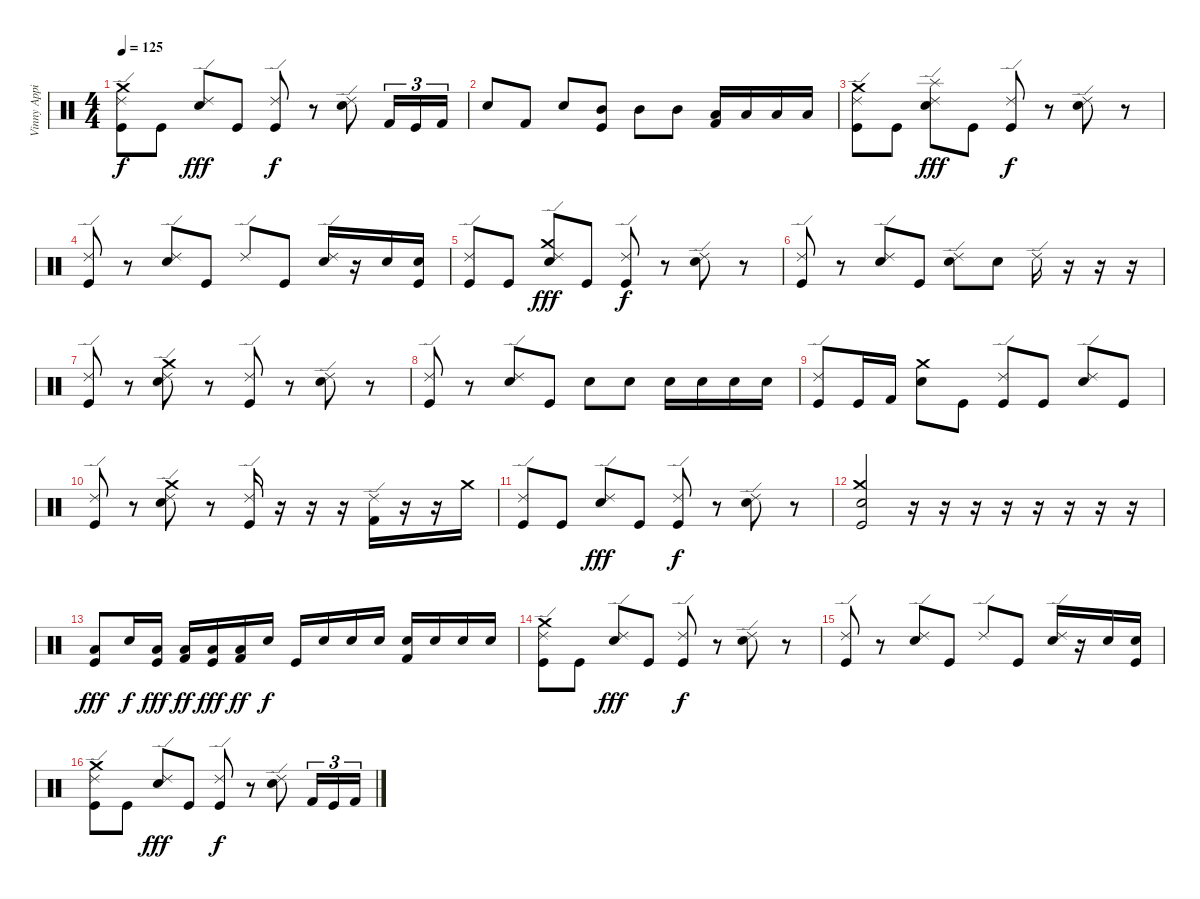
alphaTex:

\track ("Vinny Appice - Drums" "Vinny Appi") {instrument percussion}
\staff {score}
\articulation defaults
\ts (4 4)
\tempo 125
\clef neutral
\ks c
("Kick (hit)" "Ride (edge) 2" "Crash medium (hit)").8{dy f} "Kick (hit)".8 ("Ride (edge) 2" "Snare (hit) 2").8{dy fff} "Kick (hit)".8 ("Ride (edge) 2" "Kick (hit)").8{dy f} r.8 ("Ride (edge) 2" "Snare (hit) 2").8 "Kick (hit) 2".16{tu (3 2)} "Kick (hit)".16{tu (3 2)} "Kick (hit) 2".16{tu (3 2)} |
"Snare (hit) 2".8 "Kick (hit) 2".8 "Electric Snare (hit)".8 ("Kick (hit)" "Mid Tom (hit)").8 "Mid Tom (hit)".8 "Mid Tom (hit)".8 ("Kick (hit) 2" "Low Tom (hit)").16 "Low Tom (hit)".16 "Low Tom (hit)".16 "Low Tom (hit)".16 |
("Kick (hit)" "Ride (edge) 2" "Crash medium (hit)").8 "Kick (hit)".8 ("Ride (edge) 2" "Snare (hit) 2" "Splash (hit)").8{dy fff} "Kick (hit)".8 ("Ride (edge) 2" "Kick (hit)").8{dy f} r.8 ("Ride (edge) 2" "Snare (hit) 2").8 r.8 |
("Ride (edge) 2" "Kick (hit)").8 r.8 ("Ride (edge) 2" "Snare (hit) 2").8 "Kick (hit)".8 "Ride (edge) 2".8 "Kick (hit)".8 ("Ride (edge) 2" "Snare (hit) 2").16 r.16 "Snare (hit) 2".16 ("Kick (hit)" "Snare (hit) 2").16 |
("Kick (hit)" "Ride (edge) 2").8 "Kick (hit)".8 ("Ride (edge) 2" "Snare (hit) 2" "Crash medium (hit)").8{dy fff} "Kick (hit)".8 ("Ride (edge) 2" "Kick (hit)").8{dy f} r.8 ("Ride (edge) 2" "Snare (hit) 2").8 r.8 |
("Ride (edge) 2" "Kick (hit)").8 r.8 ("Ride (edge) 2" "Snare (hit) 2").8 "Kick (hit)".8 ("Ride (edge) 2" "Snare (hit) 2").8 "Snare (hit) 2".8 "Ride (edge) 2".16 r.16 r.16 r.16 |
("Ride (edge) 2" "Kick (hit)").8 r.8 ("Ride (edge) 2" "Snare (hit) 2" "Crash medium (hit)").8 r.8 ("Ride (edge) 2" "Kick (hit)").8 r.8 ("Ride (edge) 2" "Snare (hit) 2").8 r.8 |
("Ride (edge) 2" "Kick (hit)").8 r.8 ("Ride (edge) 2" "Snare (hit) 2").8 "Kick (hit)".8 "Snare (hit) 2".8 "Snare (hit) 2".8 "Snare (hit) 2".16 "Snare (hit) 2".16 "Snare (hit) 2".16 "Snare (hit) 2".16 |
("Kick (hit)" "Ride (edge) 2").8 "Kick (hit)".16 "Kick (hit) 2".16 ("Snare (hit) 2" "Crash medium (hit)").8 "Kick (hit)".8 ("Ride (edge) 2" "Kick (hit)").8 "Kick (hit)".8 ("Ride (edge) 2" "Snare (hit) 2").8 "Kick (hit)".8 |
("Ride (edge) 2" "Kick (hit)").8 r.8 ("Ride (edge) 2" "Snare (hit) 2" "Crash medium (hit)").8 r.8 ("Kick (hit)" "Ride (edge) 2").16 r.16 r.16 r.16 ("Kick (hit) 2" "Ride (edge) 2").16 r.16 r.16 "Crash medium (hit)".16 |
("Kick (hit)" "Ride (edge) 2").8 "Kick (hit)".8 ("Ride (edge) 2" "Snare (hit) 2").8{dy fff} "Kick (hit)".8 ("Ride (edge) 2" "Kick (hit)").8{dy f} r.8 ("Ride (edge) 2" "Snare (hit) 2").8 r.8 |
("Kick (hit)" "Snare (hit) 2" "Crash medium (hit)").2 r.16 r.16 r.16 r.16 r.16 r.16 r.16 r.16 |
("Low Tom (hit)" "Kick (hit)").8{dy fff} "Snare (hit) 2".16{dy f} ("Low Tom (hit)" "Kick (hit)").16{dy fff} ("Low Tom (hit)" "Kick (hit) 2").16{dy ff} ("Low Tom (hit)" "Kick (hit)").16{dy fff} ("Low Tom (hit)" "Kick (hit) 2").16{dy ff} "Snare (hit) 2".16{dy f} "Kick (hit)".16 "Electric Snare (hit)".16 "Electric Snare (hit)".16 "Electric Snare (hit)".16 ("Kick (hit) 2" "Electric Snare (hit)").16 "Snare (hit) 2".16 "Snare (hit) 2".16 "Snare (hit) 2".16 |
("Kick (hit)" "Ride (edge) 2" "Crash medium (hit)").8 "Kick (hit)".8 ("Ride (edge) 2" "Snare (hit) 2").8{dy fff} "Kick (hit)".8 ("Ride (edge) 2" "Kick (hit)").8{dy f} r.8 ("Ride (edge) 2" "Snare (hit) 2").8 r.8 |
("Ride (edge) 2" "Kick (hit)").8 r.8 ("Ride (edge) 2" "Snare (hit) 2").8 "Kick (hit)".8 "Ride (edge) 2".8 "Kick (hit)".8 ("Ride (edge) 2" "Snare (hit) 2").16 r.16 "Snare (hit) 2".16 ("Kick (hit)" "Snare (hit) 2").16 |
("Kick (hit)" "Ride (edge) 2" "Crash medium (hit)").8 "Kick (hit)".8 ("Ride (edge) 2" "Snare (hit) 2").8{dy fff} "Kick (hit)".8 ("Ride (edge) 2" "Kick (hit)").8{dy f} r.8 ("Ride (edge) 2" "Snare (hit) 2").8 "Kick (hit) 2".16{tu (3 2)} "Kick (hit)".16{tu (3 2)} "Kick (hit) 2".16{tu (3 2)}
